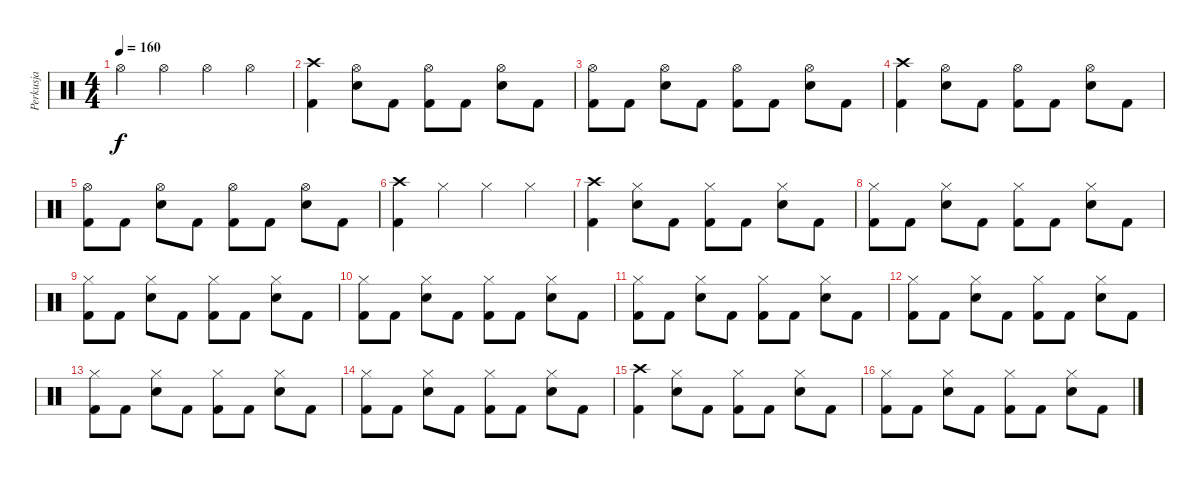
\track ("Perkusja" "Perkusja") {instrument percussion}
\staff {score}
\articulation defaults
\ts (4 4)
\tempo 160
\clef neutral
\ks c "Hi-Hat (open)".4{dy f} "Hi-Hat (open)".4 "Hi-Hat (open)".4 "Hi-Hat (open)".4
|
("Crash high (hit)" "Kick (hit) 2").4 ("Hi-Hat (open)" "Electric Snare (hit)").8 "Kick (hit) 2".8 ("Hi-Hat (open)" "Kick (hit) 2").8 "Kick (hit) 2".8 ("Hi-Hat (open)" "Electric Snare (hit)").8 "Kick (hit) 2".8 |
("Hi-Hat (open)" "Kick (hit) 2").8 "Kick (hit) 2".8 ("Hi-Hat (open)" "Electric Snare (hit)").8 "Kick (hit) 2".8 ("Hi-Hat (open)" "Kick (hit) 2").8 "Kick (hit) 2".8 ("Hi-Hat (open)" "Electric Snare (hit)").8 "Kick (hit) 2".8 |
("Crash high (hit)" "Kick (hit) 2").4 ("Hi-Hat (open)" "Electric Snare (hit)").8 "Kick (hit) 2".8 ("Hi-Hat (open)" "Kick (hit) 2").8 "Kick (hit) 2".8 ("Hi-Hat (open)" "Electric Snare (hit)").8 "Kick (hit) 2".8 |
("Hi-Hat (open)" "Kick (hit) 2").8 "Kick (hit) 2".8 ("Hi-Hat (open)" "Electric Snare (hit)").8 "Kick (hit) 2".8 ("Hi-Hat (open)" "Kick (hit) 2").8 "Kick (hit) 2".8 ("Hi-Hat (open)" "Electric Snare (hit)").8 "Kick (hit) 2".8 |
("Crash high (hit)" "Kick (hit) 2").4 "Hi-Hat (closed)".4 "Hi-Hat (closed)".4 "Hi-Hat (closed)".4 |
("Crash high (hit)" "Kick (hit) 2").4 ("Hi-Hat (closed)" "Electric Snare (hit)").8 "Kick (hit) 2".8 ("Hi-Hat (closed)" "Kick (hit) 2").8 "Kick (hit) 2".8 ("Hi-Hat (closed)" "Electric Snare (hit)").8 "Kick (hit) 2".8 |
("Hi-Hat (closed)" "Kick (hit) 2").8 "Kick (hit) 2".8 ("Hi-Hat (closed)" "Electric Snare (hit)").8 "Kick (hit) 2".8 ("Hi-Hat (closed)" "Kick (hit) 2").8 "Kick (hit) 2".8 ("Hi-Hat (closed)" "Electric Snare (hit)").8 "Kick (hit) 2".8 |
("Hi-Hat (closed)" "Kick (hit) 2").8 "Kick (hit) 2".8 ("Hi-Hat (closed)" "Electric Snare (hit)").8 "Kick (hit) 2".8 ("Hi-Hat (closed)" "Kick (hit) 2").8 "Kick (hit) 2".8 ("Hi-Hat (closed)" "Electric Snare (hit)").8 "Kick (hit) 2".8 |
("Hi-Hat (closed)" "Kick (hit) 2").8 "Kick (hit) 2".8 ("Hi-Hat (closed)" "Electric Snare (hit)").8 "Kick (hit) 2".8 ("Hi-Hat (closed)" "Kick (hit) 2").8 "Kick (hit) 2".8 ("Hi-Hat (closed)" "Electric Snare (hit)").8 "Kick (hit) 2".8 |
("Hi-Hat (closed)" "Kick (hit) 2").8 "Kick (hit) 2".8 ("Hi-Hat (closed)" "Electric Snare (hit)").8 "Kick (hit) 2".8 ("Hi-Hat (closed)" "Kick (hit) 2").8 "Kick (hit) 2".8 ("Hi-Hat (closed)" "Electric Snare (hit)").8 "Kick (hit) 2".8 |
("Hi-Hat (closed)" "Kick (hit) 2").8 "Kick (hit) 2".8 ("Hi-Hat (closed)" "Electric Snare (hit)").8 "Kick (hit) 2".8 ("Hi-Hat (closed)" "Kick (hit) 2").8 "Kick (hit) 2".8 ("Hi-Hat (closed)" "Electric Snare (hit)").8 "Kick (hit) 2".8 |
("Hi-Hat (closed)" "Kick (hit) 2").8 "Kick (hit) 2".8 ("Hi-Hat (closed)" "Electric Snare (hit)").8 "Kick (hit) 2".8 ("Hi-Hat (closed)" "Kick (hit) 2").8 "Kick (hit) 2".8 ("Hi-Hat (closed)" "Electric Snare (hit)").8 "Kick (hit) 2".8 |
("Hi-Hat (closed)" "Kick (hit) 2").8 "Kick (hit) 2".8 ("Hi-Hat (closed)" "Electric Snare (hit)").8 "Kick (hit) 2".8 ("Hi-Hat (closed)" "Kick (hit) 2").8 "Kick (hit) 2".8 ("Hi-Hat (closed)" "Electric Snare (hit)").8 "Kick (hit) 2".8 |
("Crash high (hit)" "Kick (hit) 2").4 ("Hi-Hat (closed)" "Electric Snare (hit)").8 "Kick (hit) 2".8 ("Hi-Hat (closed)" "Kick (hit) 2").8 "Kick (hit) 2".8 ("Hi-Hat (closed)" "Electric Snare (hit)").8 "Kick (hit) 2".8 |
("Hi-Hat (closed)" "Kick (hit) 2").8 "Kick (hit) 2".8 ("Hi-Hat (closed)" "Electric Snare (hit)").8 "Kick (hit) 2".8 ("Hi-Hat (closed)" "Kick (hit) 2").8 "Kick (hit) 2".8 ("Hi-Hat (closed)" "Electric Snare (hit)").8 "Kick (hit) 2".8
